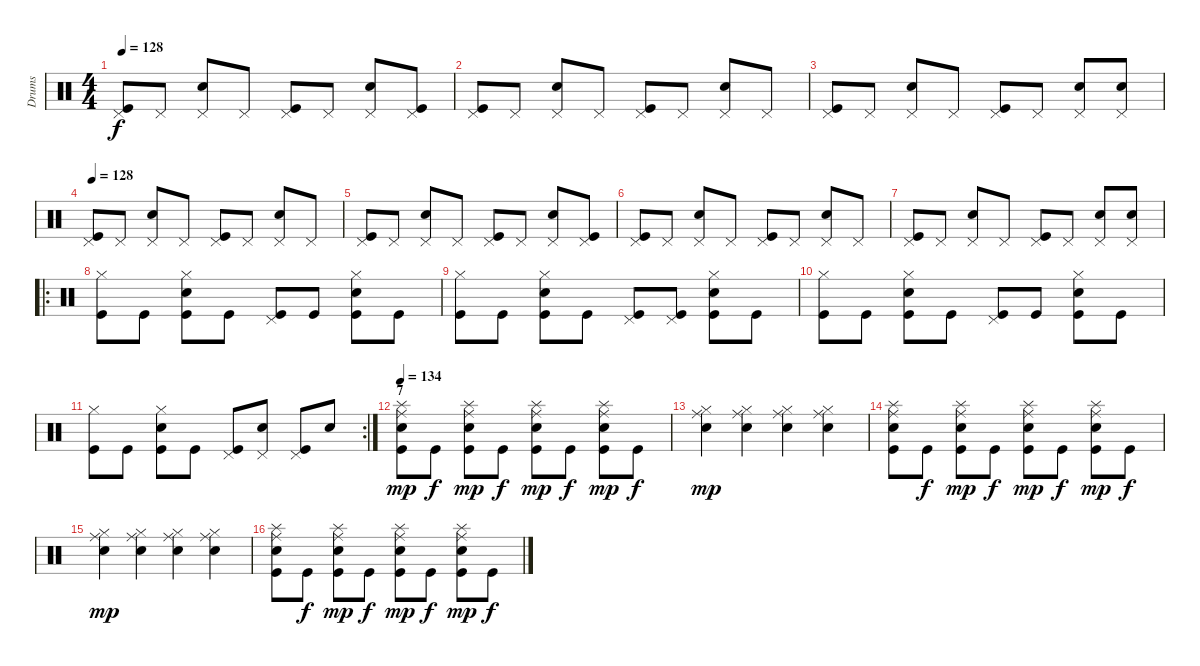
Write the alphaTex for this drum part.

\track ("Drums" "Drums") {instrument percussion}
\staff {score}
\articulation defaults
\ts (4 4)
\tempo 128
\clef neutral
\ks c
("Pedal Hi-Hat (hit)" "Kick (hit)").8{dy f} "Pedal Hi-Hat (hit)".8 ("Pedal Hi-Hat (hit)" "Electric Snare (hit)").8 "Pedal Hi-Hat (hit)".8 ("Pedal Hi-Hat (hit)" "Kick (hit)").8 "Pedal Hi-Hat (hit)".8 ("Pedal Hi-Hat (hit)" "Electric Snare (hit)").8 ("Pedal Hi-Hat (hit)" "Kick (hit)").8 |
("Pedal Hi-Hat (hit)" "Kick (hit)").8 "Pedal Hi-Hat (hit)".8 ("Pedal Hi-Hat (hit)" "Electric Snare (hit)").8 "Pedal Hi-Hat (hit)".8 ("Pedal Hi-Hat (hit)" "Kick (hit)").8 "Pedal Hi-Hat (hit)".8 ("Pedal Hi-Hat (hit)" "Electric Snare (hit)").8 "Pedal Hi-Hat (hit)".8 |
("Pedal Hi-Hat (hit)" "Kick (hit)").8 "Pedal Hi-Hat (hit)".8 ("Pedal Hi-Hat (hit)" "Electric Snare (hit)").8 "Pedal Hi-Hat (hit)".8 ("Pedal Hi-Hat (hit)" "Kick (hit)").8 "Pedal Hi-Hat (hit)".8 ("Pedal Hi-Hat (hit)" "Electric Snare (hit)").8 ("Pedal Hi-Hat (hit)" "Electric Snare (hit)").8 |
\tempo 128
("Pedal Hi-Hat (hit)" "Kick (hit)").8 "Pedal Hi-Hat (hit)".8 ("Pedal Hi-Hat (hit)" "Electric Snare (hit)").8 "Pedal Hi-Hat (hit)".8 ("Pedal Hi-Hat (hit)" "Kick (hit)").8 "Pedal Hi-Hat (hit)".8 ("Pedal Hi-Hat (hit)" "Electric Snare (hit)").8 "Pedal Hi-Hat (hit)".8 |
("Pedal Hi-Hat (hit)" "Kick (hit)").8 "Pedal Hi-Hat (hit)".8 ("Pedal Hi-Hat (hit)" "Electric Snare (hit)").8 "Pedal Hi-Hat (hit)".8 ("Pedal Hi-Hat (hit)" "Kick (hit)").8 "Pedal Hi-Hat (hit)".8 ("Pedal Hi-Hat (hit)" "Electric Snare (hit)").8 ("Pedal Hi-Hat (hit)" "Kick (hit)").8 |
("Pedal Hi-Hat (hit)" "Kick (hit)").8 "Pedal Hi-Hat (hit)".8 ("Pedal Hi-Hat (hit)" "Electric Snare (hit)").8 "Pedal Hi-Hat (hit)".8 ("Pedal Hi-Hat (hit)" "Kick (hit)").8 "Pedal Hi-Hat (hit)".8 ("Pedal Hi-Hat (hit)" "Electric Snare (hit)").8 "Pedal Hi-Hat (hit)".8 |
("Pedal Hi-Hat (hit)" "Kick (hit)").8 "Pedal Hi-Hat (hit)".8 ("Pedal Hi-Hat (hit)" "Electric Snare (hit)").8 "Pedal Hi-Hat (hit)".8 ("Pedal Hi-Hat (hit)" "Kick (hit)").8 "Pedal Hi-Hat (hit)".8 ("Pedal Hi-Hat (hit)" "Electric Snare (hit)").8 ("Pedal Hi-Hat (hit)" "Electric Snare (hit)").8 |
\ro
("Hi-Hat (closed)" "Kick (hit)").8 "Kick (hit)".8 ("Hi-Hat (closed)" "Electric Snare (hit)" "Kick (hit)").8 "Kick (hit)".8 ("Pedal Hi-Hat (hit)" "Kick (hit)").8 "Kick (hit)".8 ("Hi-Hat (closed)" "Electric Snare (hit)" "Kick (hit)").8 "Kick (hit)".8 |
("Hi-Hat (closed)" "Kick (hit)").8 "Kick (hit)".8 ("Hi-Hat (closed)" "Electric Snare (hit)" "Kick (hit)").8 "Kick (hit)".8 ("Pedal Hi-Hat (hit)" "Kick (hit)").8 ("Pedal Hi-Hat (hit)" "Kick (hit)").8 ("Hi-Hat (closed)" "Electric Snare (hit)" "Kick (hit)").8 "Kick (hit)".8 |
("Hi-Hat (closed)" "Kick (hit)").8 "Kick (hit)".8 ("Hi-Hat (closed)" "Electric Snare (hit)" "Kick (hit)").8 "Kick (hit)".8 ("Pedal Hi-Hat (hit)" "Kick (hit)").8 "Kick (hit)".8 ("Hi-Hat (closed)" "Electric Snare (hit)" "Kick (hit)").8 "Kick (hit)".8 |
\rc 2
("Hi-Hat (closed)" "Kick (hit)").8 "Kick (hit)".8 ("Hi-Hat (closed)" "Electric Snare (hit)" "Kick (hit)").8 "Kick (hit)".8 ("Pedal Hi-Hat (hit)" "Kick (hit)").8 ("Pedal Hi-Hat (hit)" "Electric Snare (hit)").8 ("Pedal Hi-Hat (hit)" "Kick (hit)").8 "Electric Snare (hit)".8 |
\section ("" "7")
\tempo 134
("Electric Snare (hit)" "Splash (hit)" "Kick (hit)" "Ride (middle)").8{dy mp} "Kick (hit)".8{dy f} ("Electric Snare (hit)" "Splash (hit)" "Kick (hit)" "Ride (middle)").8{dy mp} "Kick (hit)".8{dy f} ("Electric Snare (hit)" "Splash (hit)" "Kick (hit)" "Ride (middle)").8{dy mp} "Kick (hit)".8{dy f} ("Electric Snare (hit)" "Splash (hit)" "Kick (hit)" "Ride (middle)").8{dy mp} "Kick (hit)".8{dy f} |
("Electric Snare (hit)" "Hi-Hat (closed)" "Ride (middle)").4{dy mp} ("Electric Snare (hit)" "Hi-Hat (closed)" "Ride (middle)").4 ("Electric Snare (hit)" "Hi-Hat (closed)" "Ride (middle)").4 ("Electric Snare (hit)" "Hi-Hat (closed)" "Ride (middle)").4 |
("Electric Snare (hit)" "Splash (hit)" "Kick (hit)" "Ride (middle)").8 "Kick (hit)".8{dy f} ("Electric Snare (hit)" "Splash (hit)" "Kick (hit)" "Ride (middle)").8{dy mp} "Kick (hit)".8{dy f} ("Electric Snare (hit)" "Splash (hit)" "Kick (hit)" "Ride (middle)").8{dy mp} "Kick (hit)".8{dy f} ("Electric Snare (hit)" "Splash (hit)" "Kick (hit)" "Ride (middle)").8{dy mp} "Kick (hit)".8{dy f} |
("Electric Snare (hit)" "Hi-Hat (closed)" "Ride (middle)").4{dy mp} ("Electric Snare (hit)" "Hi-Hat (closed)" "Ride (middle)").4 ("Electric Snare (hit)" "Hi-Hat (closed)" "Ride (middle)").4 ("Electric Snare (hit)" "Hi-Hat (closed)" "Ride (middle)").4 |
("Electric Snare (hit)" "Splash (hit)" "Kick (hit)" "Ride (middle)").8 "Kick (hit)".8{dy f} ("Electric Snare (hit)" "Splash (hit)" "Kick (hit)" "Ride (middle)").8{dy mp} "Kick (hit)".8{dy f} ("Electric Snare (hit)" "Splash (hit)" "Kick (hit)" "Ride (middle)").8{dy mp} "Kick (hit)".8{dy f} ("Electric Snare (hit)" "Splash (hit)" "Kick (hit)" "Ride (middle)").8{dy mp} "Kick (hit)".8{dy f}
